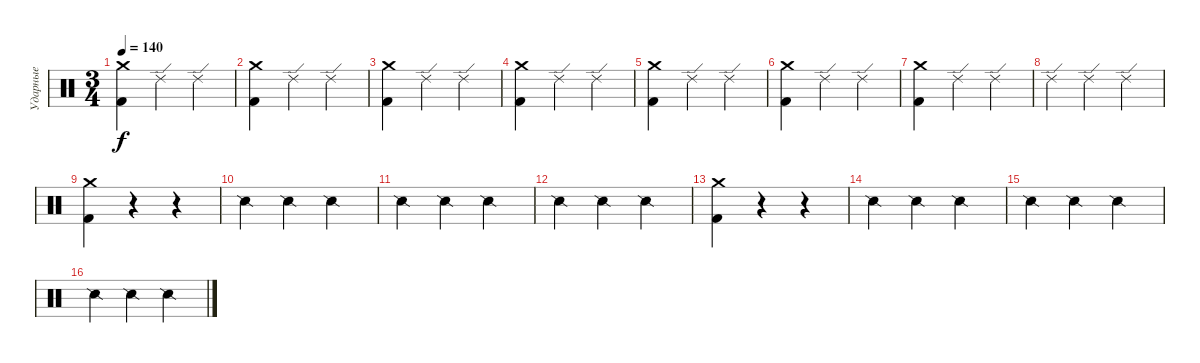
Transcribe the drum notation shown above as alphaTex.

\track ("Ударные" "Ударные") {instrument percussion}
\staff {score}
\articulation defaults
\ts (3 4)
\tempo 140
\clef neutral
\ks c
("Kick (hit) 2" "Crash medium (hit)").4{dy f} "Ride (edge) 2".4 "Ride (edge) 2".4 |
("Kick (hit) 2" "Crash medium (hit)").4 "Ride (edge) 2".4 "Ride (edge) 2".4 |
("Kick (hit) 2" "Crash medium (hit)").4 "Ride (edge) 2".4 "Ride (edge) 2".4 |
("Kick (hit) 2" "Crash medium (hit)").4 "Ride (edge) 2".4 "Ride (edge) 2".4 |
("Kick (hit) 2" "Crash medium (hit)").4 "Ride (edge) 2".4 "Ride (edge) 2".4 |
("Kick (hit) 2" "Crash medium (hit)").4 "Ride (edge) 2".4 "Ride (edge) 2".4 |
("Kick (hit) 2" "Crash medium (hit)").4 "Ride (edge) 2".4 "Ride (edge) 2".4 |
"Ride (edge) 2".4 "Ride (edge) 2".4 "Ride (edge) 2".4 |
("Kick (hit) 2" "Crash medium (hit)").4 r.4 r.4 |
"Snare (side stick) 2".4 "Snare (side stick) 2".4 "Snare (side stick) 2".4 |
"Snare (side stick) 2".4 "Snare (side stick) 2".4 "Snare (side stick) 2".4 |
"Snare (side stick) 2".4 "Snare (side stick) 2".4 "Snare (side stick) 2".4 |
("Kick (hit) 2" "Crash medium (hit)").4 r.4 r.4 |
"Snare (side stick) 2".4 "Snare (side stick) 2".4 "Snare (side stick) 2".4 |
"Snare (side stick) 2".4 "Snare (side stick) 2".4 "Snare (side stick) 2".4 |
"Snare (side stick) 2".4 "Snare (side stick) 2".4 "Snare (side stick) 2".4
